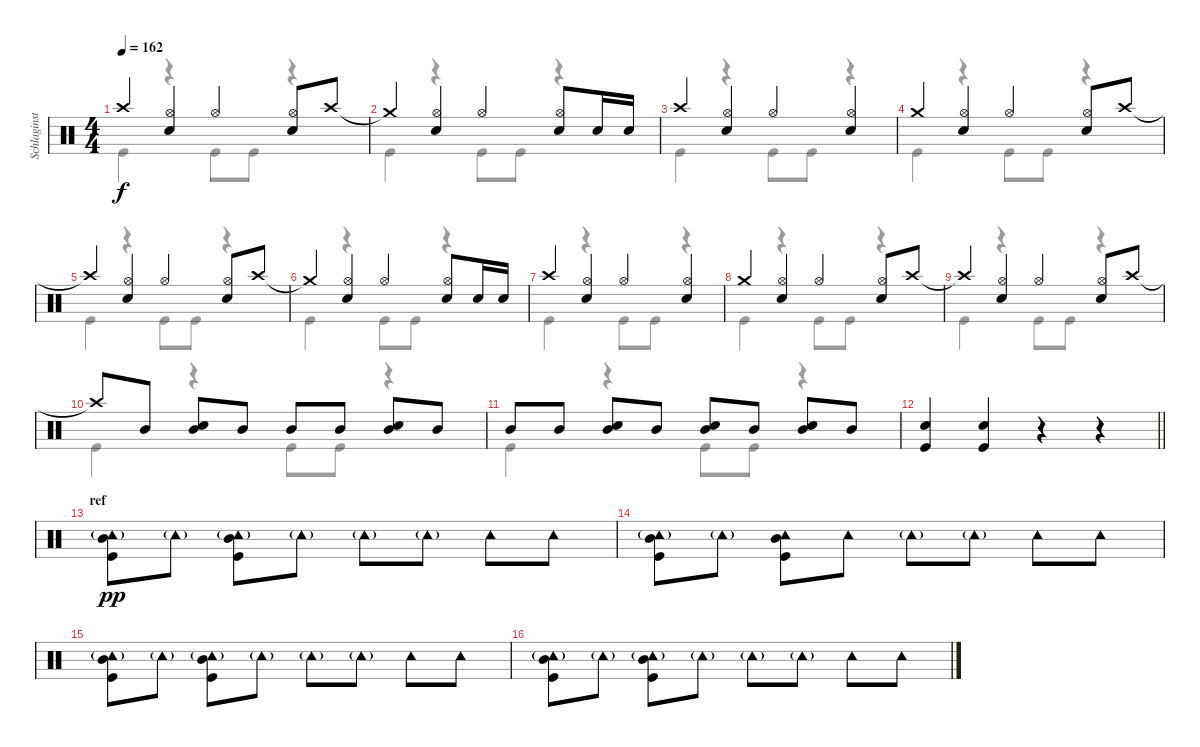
\track ("Schlaginstrumente - Auswahl" "Schlaginst") {instrument percussion}
\staff {score}
\articulation defaults
\voice
\ts (4 4)
\tempo 162
\clef neutral
\ks c "Crash high (hit)"{t}.4{dy f}
("Hi-Hat (open)" "Snare (hit) 2").4 "Hi-Hat (open)".4 ("Hi-Hat (open)" "Snare (hit) 2").8 "Crash high (hit)".8 |
"Crash medium (hit)"{t}.4 ("Hi-Hat (open)" "Snare (hit) 2").4 "Hi-Hat (open)".4 ("Hi-Hat (open)" "Snare (hit) 2").8 "Snare (hit) 2".16 "Snare (hit) 2".16 |
"Crash high (hit)".4 ("Hi-Hat (open)" "Snare (hit) 2").4 "Hi-Hat (open)".4 ("Hi-Hat (open)" "Snare (hit) 2").4 |
"Crash medium (hit)".4 ("Hi-Hat (open)" "Snare (hit) 2").4 "Hi-Hat (open)".4 ("Hi-Hat (open)" "Snare (hit) 2").8 "Crash high (hit)".8 |
"Crash high (hit)"{t}.4 ("Hi-Hat (open)" "Snare (hit) 2").4 "Hi-Hat (open)".4 ("Hi-Hat (open)" "Snare (hit) 2").8 "Crash high (hit)".8 |
"Crash medium (hit)"{t}.4 ("Hi-Hat (open)" "Snare (hit) 2").4 "Hi-Hat (open)".4 ("Hi-Hat (open)" "Snare (hit) 2").8 "Snare (hit) 2".16 "Snare (hit) 2".16 |
"Crash high (hit)".4 ("Hi-Hat (open)" "Snare (hit) 2").4 "Hi-Hat (open)".4 ("Hi-Hat (open)" "Snare (hit) 2").4 |
"Crash medium (hit)".4 ("Hi-Hat (open)" "Snare (hit) 2").4 "Hi-Hat (open)".4 ("Hi-Hat (open)" "Snare (hit) 2").8 "Crash high (hit)".8 |
"Crash high (hit)"{t}.4 ("Hi-Hat (open)" "Snare (hit) 2").4 "Hi-Hat (open)".4 ("Hi-Hat (open)" "Snare (hit) 2").8 "Crash high (hit)".8 |
"Crash high (hit)"{t}.8 "Mid Tom (hit)".8 ("Mid Tom (hit)" "Snare (hit) 2").8 "Mid Tom (hit)".8 "Mid Tom (hit)".8 "Mid Tom (hit)".8 ("Mid Tom (hit)" "Snare (hit) 2").8 "Mid Tom (hit)".8 |
"Mid Tom (hit)".8 "Mid Tom (hit)".8 ("Mid Tom (hit)" "Snare (hit) 2").8 "Mid Tom (hit)".8 ("Mid Tom (hit)" "Snare (hit) 2").8 "Mid Tom (hit)".8 ("Mid Tom (hit)" "Snare (hit) 2").8 "Mid Tom (hit)".8 |
\barLineRight lightlight
("Kick (hit)" "Snare (hit) 2").4 ("Kick (hit)" "Snare (hit) 2").4 r.4 r.4 |
\section ("" "ref")
("Tambourine (hit)"{g} "Kick (hit)" "Mid Tom (hit)").8{dy pp} "Tambourine (hit)"{g}.8 ("Tambourine (hit)"{g} "Kick (hit)" "Mid Tom (hit)").8 "Tambourine (hit)"{g}.8 "Tambourine (hit)"{g}.8 "Tambourine (hit)"{g}.8 "Tambourine (hit)".8 "Tambourine (hit)".8 |
("Tambourine (hit)"{g} "Mid Tom (hit)" "Kick (hit)").8 "Tambourine (hit)"{g}.8 ("Tambourine (hit)" "Mid Tom (hit)" "Kick (hit)").8 "Tambourine (hit)".8 "Tambourine (hit)"{g}.8 "Tambourine (hit)"{g}.8 "Tambourine (hit)".8 "Tambourine (hit)".8 |
("Tambourine (hit)"{g} "Kick (hit)" "Mid Tom (hit)").8 "Tambourine (hit)"{g}.8 ("Tambourine (hit)"{g} "Kick (hit)" "Mid Tom (hit)").8 "Tambourine (hit)"{g}.8 "Tambourine (hit)"{g}.8 "Tambourine (hit)"{g}.8 "Tambourine (hit)".8 "Tambourine (hit)".8 |
("Tambourine (hit)"{g} "Kick (hit)" "Mid Tom (hit)").8 "Tambourine (hit)"{g}.8 ("Tambourine (hit)"{g} "Kick (hit)" "Mid Tom (hit)").8 "Tambourine (hit)"{g}.8 "Tambourine (hit)"{g}.8 "Tambourine (hit)"{g}.8 "Tambourine (hit)".8 "Tambourine (hit)".8
\voice
\clef neutral
\ottava regular
\simile none
\ks c "Kick (hit)".4{dy f}
r.4 "Kick (hit)".8 "Kick (hit)".8 r.4 |
"Kick (hit)".4 r.4 "Kick (hit)".8 "Kick (hit)".8 r.4 |
"Kick (hit)".4 r.4 "Kick (hit)".8 "Kick (hit)".8 r.4 |
"Kick (hit)".4 r.4 "Kick (hit)".8 "Kick (hit)".8 r.4 |
"Kick (hit)".4 r.4 "Kick (hit)".8 "Kick (hit)".8 r.4 |
"Kick (hit)".4 r.4 "Kick (hit)".8 "Kick (hit)".8 r.4 |
"Kick (hit)".4 r.4 "Kick (hit)".8 "Kick (hit)".8 r.4 |
"Kick (hit)".4 r.4 "Kick (hit)".8 "Kick (hit)".8 r.4 |
"Kick (hit)".4 r.4 "Kick (hit)".8 "Kick (hit)".8 r.4 |
"Kick (hit)".4 r.4 "Kick (hit)".8 "Kick (hit)".8 r.4 |
"Kick (hit)".4 r.4 "Kick (hit)".8 "Kick (hit)".8 r.4 |
\barLineRight lightlight
|
|
|
|
